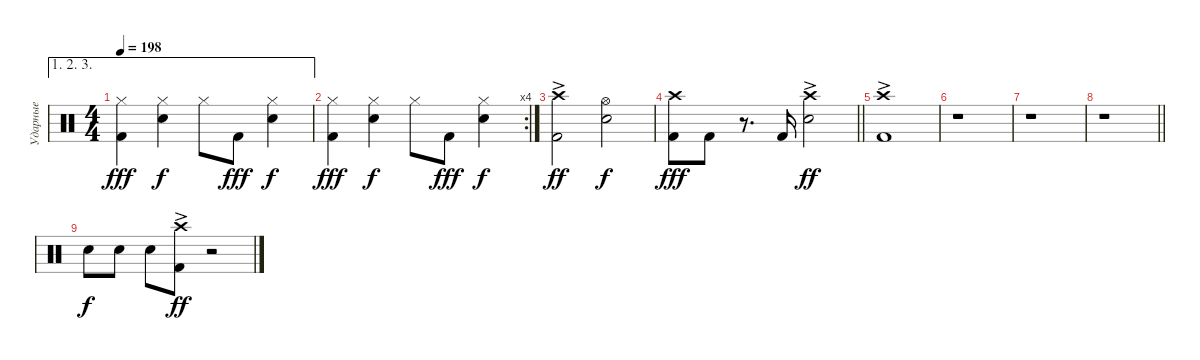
\track ("Ударные" "Ударные") {instrument percussion}
\staff {score}
\articulation defaults
\ae (1 2 3)
\ts (4 4)
\tempo 198
\clef neutral
\ks c
("Kick (hit) 2" "Hi-Hat (closed)").4{dy fff} ("Snare (hit) 2" "Hi-Hat (closed)").4{dy f} "Hi-Hat (closed)".8 "Kick (hit) 2".8{dy fff} ("Snare (hit) 2" "Hi-Hat (closed)").4{dy f} |
\rc 4
("Kick (hit) 2" "Hi-Hat (closed)").4{dy fff} ("Snare (hit) 2" "Hi-Hat (closed)").4{dy f} "Hi-Hat (closed)".8 "Kick (hit) 2".8{dy fff} ("Snare (hit) 2" "Hi-Hat (closed)").4{dy f} |
("Kick (hit) 2" "Crash high (hit)"{ac}).2{dy ff} ("Snare (hit) 2" "Hi-Hat (open)").2{dy f} |
\barLineRight lightlight
("Kick (hit) 2" "Crash high (hit)").8{dy fff} "Kick (hit) 2".8 r.8{d} "Kick (hit) 2".16 ("Snare (hit) 2" "Crash high (hit)"{ac}).2{dy ff} |
("Kick (hit) 2" "Crash high (hit)"{ac}).1 |
r.1 |
r.1 |
\barLineRight lightlight
r.1 |
"Snare (hit) 2".8{dy f} "Snare (hit) 2".8 "Snare (hit) 2".8 ("Kick (hit) 2" "Crash high (hit)"{ac}).8{dy ff} r.2
